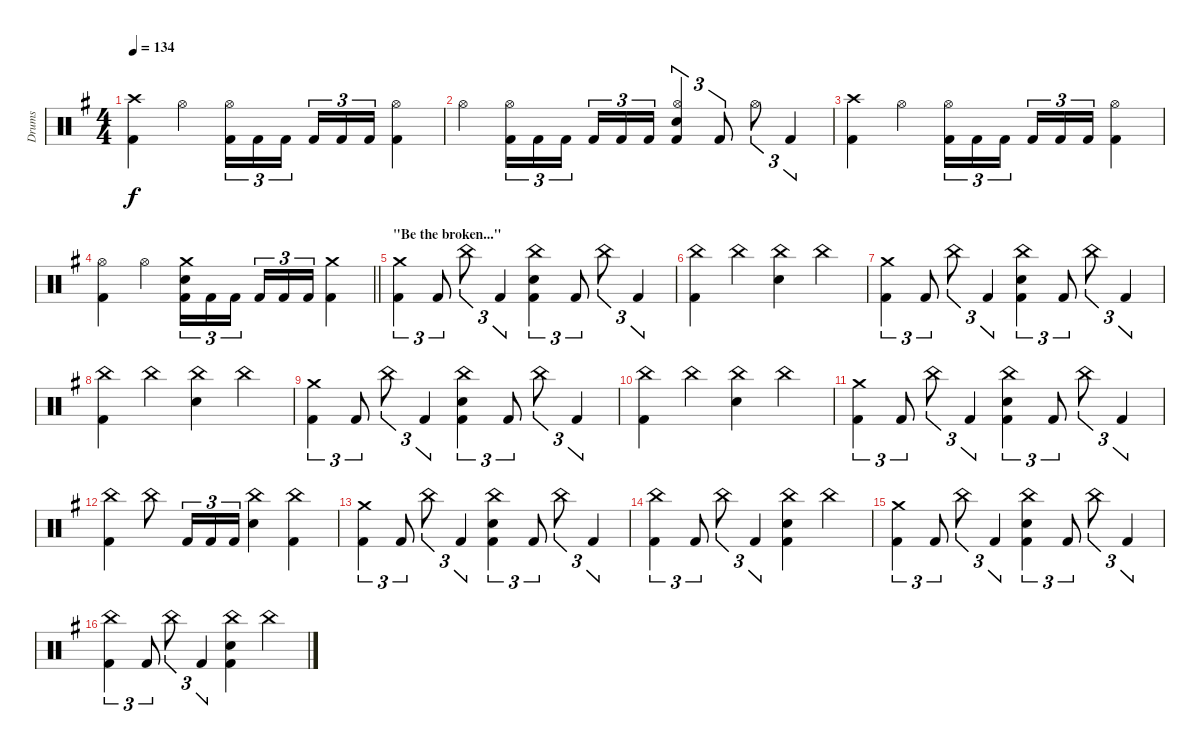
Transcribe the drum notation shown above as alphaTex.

\track ("Drums" "Drums") {instrument percussion}
\staff {score}
\articulation defaults
\ts (4 4)
\tempo 134
\clef neutral
\ks g
("Crash high (hit)" "Kick (hit) 2").4{dy f} "Hi-Hat (open)".4 ("Hi-Hat (open)" "Kick (hit) 2").16{tu (3 2)} "Kick (hit) 2".16{tu (3 2)} "Kick (hit) 2".16{tu (3 2) beam splitsecondary} "Kick (hit) 2".16{tu (3 2)} "Kick (hit) 2".16{tu (3 2)} "Kick (hit) 2".16{tu (3 2)} ("Hi-Hat (open)" "Kick (hit) 2").4 |
"Hi-Hat (open)".4 ("Hi-Hat (open)" "Kick (hit) 2").16{tu (3 2)} "Kick (hit) 2".16{tu (3 2)} "Kick (hit) 2".16{tu (3 2) beam splitsecondary} "Kick (hit) 2".16{tu (3 2)} "Kick (hit) 2".16{tu (3 2)} "Kick (hit) 2".16{tu (3 2)} ("Hi-Hat (open)" "Electric Snare (hit)" "Kick (hit) 2").4{tu (3 2)} "Kick (hit) 2".8{tu (3 2)} "Hi-Hat (open)".8{tu (3 2)} "Kick (hit) 2".4{tu (3 2)} |
("Crash high (hit)" "Kick (hit) 2").4 "Hi-Hat (open)".4 ("Hi-Hat (open)" "Kick (hit) 2").16{tu (3 2)} "Kick (hit) 2".16{tu (3 2)} "Kick (hit) 2".16{tu (3 2) beam splitsecondary} "Kick (hit) 2".16{tu (3 2)} "Kick (hit) 2".16{tu (3 2)} "Kick (hit) 2".16{tu (3 2)} ("Hi-Hat (open)" "Kick (hit) 2").4 |
\barLineRight lightlight
("Hi-Hat (open)" "Kick (hit) 2").4 "Hi-Hat (open)".4 ("Crash medium (hit)" "Electric Snare (hit)" "Kick (hit) 2").16{tu (3 2)} "Kick (hit) 2".16{tu (3 2)} "Kick (hit) 2".16{tu (3 2) beam splitsecondary} "Kick (hit) 2".16{tu (3 2)} "Kick (hit) 2".16{tu (3 2)} "Kick (hit) 2".16{tu (3 2)} ("Crash medium (hit)" "Kick (hit) 2").4 |
\section ("" "\"Be the broken...\"")
("Crash medium (hit)" "Kick (hit) 2").4{tu (3 2)} "Kick (hit) 2".8{tu (3 2)} "China (hit)".8{tu (3 2)} "Kick (hit) 2".4{tu (3 2)} ("China (hit)" "Electric Snare (hit)" "Kick (hit) 2").4{tu (3 2)} "Kick (hit) 2".8{tu (3 2)} "China (hit)".8{tu (3 2)} "Kick (hit) 2".4{tu (3 2)} |
("China (hit)" "Kick (hit) 2").4 "China (hit)".4 ("China (hit)" "Electric Snare (hit)").4 "China (hit)".4 |
("Crash medium (hit)" "Kick (hit) 2").4{tu (3 2)} "Kick (hit) 2".8{tu (3 2)} "China (hit)".8{tu (3 2)} "Kick (hit) 2".4{tu (3 2)} ("China (hit)" "Electric Snare (hit)" "Kick (hit) 2").4{tu (3 2)} "Kick (hit) 2".8{tu (3 2)} "China (hit)".8{tu (3 2)} "Kick (hit) 2".4{tu (3 2)} |
("China (hit)" "Kick (hit) 2").4 "China (hit)".4 ("China (hit)" "Electric Snare (hit)").4 "China (hit)".4 |
("Crash medium (hit)" "Kick (hit) 2").4{tu (3 2)} "Kick (hit) 2".8{tu (3 2)} "China (hit)".8{tu (3 2)} "Kick (hit) 2".4{tu (3 2)} ("China (hit)" "Electric Snare (hit)" "Kick (hit) 2").4{tu (3 2)} "Kick (hit) 2".8{tu (3 2)} "China (hit)".8{tu (3 2)} "Kick (hit) 2".4{tu (3 2)} |
("China (hit)" "Kick (hit) 2").4 "China (hit)".4 ("China (hit)" "Electric Snare (hit)").4 "China (hit)".4 |
("Crash medium (hit)" "Kick (hit) 2").4{tu (3 2)} "Kick (hit) 2".8{tu (3 2)} "China (hit)".8{tu (3 2)} "Kick (hit) 2".4{tu (3 2)} ("China (hit)" "Electric Snare (hit)" "Kick (hit) 2").4{tu (3 2)} "Kick (hit) 2".8{tu (3 2)} "China (hit)".8{tu (3 2)} "Kick (hit) 2".4{tu (3 2)} |
("China (hit)" "Kick (hit) 2").4 "China (hit)".8 "Kick (hit) 2".16{tu (3 2)} "Kick (hit) 2".16{tu (3 2)} "Kick (hit) 2".16{tu (3 2)} ("China (hit)" "Electric Snare (hit)").4 ("China (hit)" "Kick (hit) 2").4 |
("Crash medium (hit)" "Kick (hit) 2").4{tu (3 2)} "Kick (hit) 2".8{tu (3 2)} "China (hit)".8{tu (3 2)} "Kick (hit) 2".4{tu (3 2)} ("China (hit)" "Electric Snare (hit)" "Kick (hit) 2").4{tu (3 2)} "Kick (hit) 2".8{tu (3 2)} "China (hit)".8{tu (3 2)} "Kick (hit) 2".4{tu (3 2)} |
("China (hit)" "Kick (hit) 2").4{tu (3 2)} "Kick (hit) 2".8{tu (3 2)} "China (hit)".8{tu (3 2)} "Kick (hit) 2".4{tu (3 2)} ("China (hit)" "Electric Snare (hit)" "Kick (hit) 2").4 "China (hit)".4 |
("Crash medium (hit)" "Kick (hit) 2").4{tu (3 2)} "Kick (hit) 2".8{tu (3 2)} "China (hit)".8{tu (3 2)} "Kick (hit) 2".4{tu (3 2)} ("China (hit)" "Electric Snare (hit)" "Kick (hit) 2").4{tu (3 2)} "Kick (hit) 2".8{tu (3 2)} "China (hit)".8{tu (3 2)} "Kick (hit) 2".4{tu (3 2)} |
("China (hit)" "Kick (hit) 2").4{tu (3 2)} "Kick (hit) 2".8{tu (3 2)} "China (hit)".8{tu (3 2)} "Kick (hit) 2".4{tu (3 2)} ("China (hit)" "Electric Snare (hit)" "Kick (hit) 2").4 "China (hit)".4
